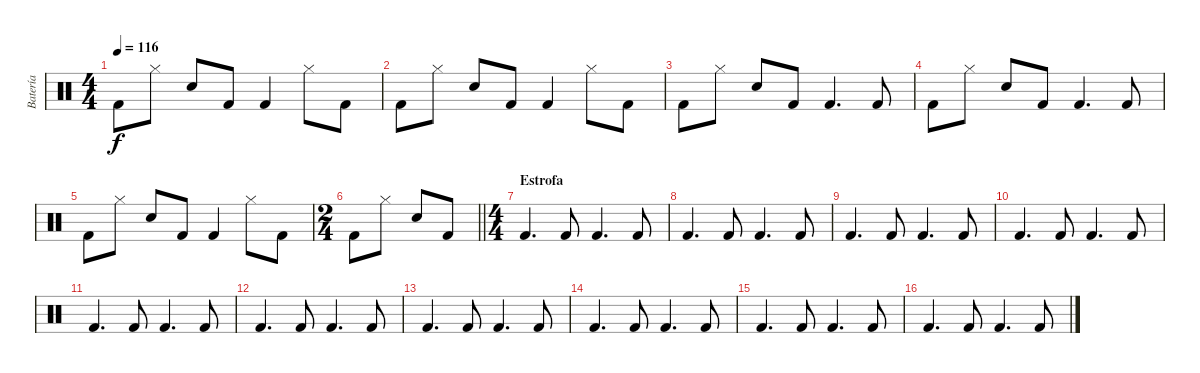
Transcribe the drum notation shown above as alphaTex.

\track ("Batería" "Batería") {instrument percussion}
\staff {score}
\articulation defaults
\ts (4 4)
\tempo 116
\clef neutral
\ks c "Kick (hit) 2".8{dy f} "Hi-Hat (closed)".8 "Electric Snare (hit)".8 "Kick (hit) 2".8 "Kick (hit) 2".4 "Hi-Hat (closed)".8 "Kick (hit) 2".8
|
"Kick (hit) 2".8 "Hi-Hat (closed)".8 "Electric Snare (hit)".8 "Kick (hit) 2".8 "Kick (hit) 2".4 "Hi-Hat (closed)".8 "Kick (hit) 2".8 |
"Kick (hit) 2".8 "Hi-Hat (closed)".8 "Electric Snare (hit)".8 "Kick (hit) 2".8 "Kick (hit) 2".4{d} "Kick (hit) 2".8 |
"Kick (hit) 2".8 "Hi-Hat (closed)".8 "Electric Snare (hit)".8 "Kick (hit) 2".8 "Kick (hit) 2".4{d} "Kick (hit) 2".8 |
"Kick (hit) 2".8 "Hi-Hat (closed)".8 "Electric Snare (hit)".8 "Kick (hit) 2".8 "Kick (hit) 2".4 "Hi-Hat (closed)".8 "Kick (hit) 2".8 |
\ts (2 4)
\barLineRight lightlight "Kick (hit) 2".8 "Hi-Hat (closed)".8 "Electric Snare (hit)".8 "Kick (hit) 2".8
|
\ts (4 4)
\section ("" "Estrofa")
"Kick (hit) 2".4{d} "Kick (hit) 2".8 "Kick (hit) 2".4{d} "Kick (hit) 2".8 |
"Kick (hit) 2".4{d} "Kick (hit) 2".8 "Kick (hit) 2".4{d} "Kick (hit) 2".8 |
"Kick (hit) 2".4{d} "Kick (hit) 2".8 "Kick (hit) 2".4{d} "Kick (hit) 2".8 |
"Kick (hit) 2".4{d} "Kick (hit) 2".8 "Kick (hit) 2".4{d} "Kick (hit) 2".8 |
"Kick (hit) 2".4{d} "Kick (hit) 2".8 "Kick (hit) 2".4{d} "Kick (hit) 2".8 |
"Kick (hit) 2".4{d} "Kick (hit) 2".8 "Kick (hit) 2".4{d} "Kick (hit) 2".8 |
"Kick (hit) 2".4{d} "Kick (hit) 2".8 "Kick (hit) 2".4{d} "Kick (hit) 2".8 |
"Kick (hit) 2".4{d} "Kick (hit) 2".8 "Kick (hit) 2".4{d} "Kick (hit) 2".8 |
"Kick (hit) 2".4{d} "Kick (hit) 2".8 "Kick (hit) 2".4{d} "Kick (hit) 2".8 |
"Kick (hit) 2".4{d} "Kick (hit) 2".8 "Kick (hit) 2".4{d} "Kick (hit) 2".8
